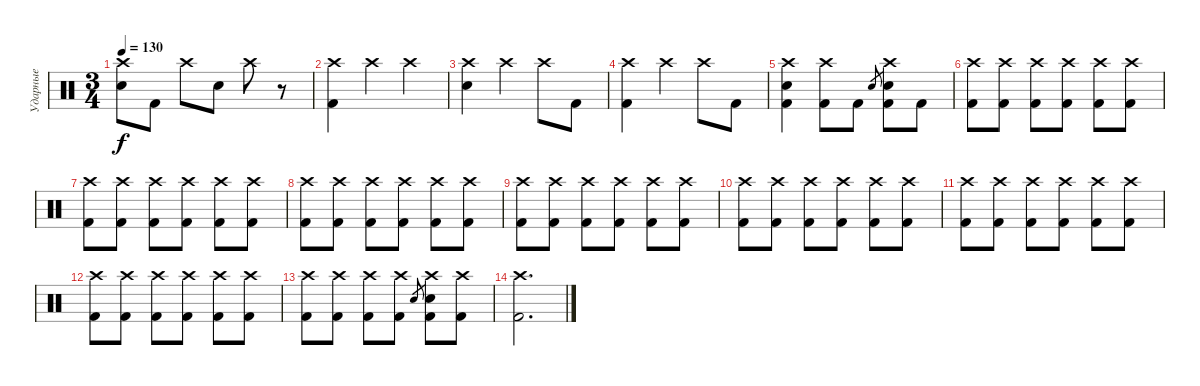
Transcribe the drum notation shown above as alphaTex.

\track ("Ударные" "Ударные") {instrument percussion}
\staff {score}
\articulation defaults
\ts (3 4)
\tempo 130
\clef neutral
\ks c
("Crash high (hit)" "Electric Snare (hit)").8{dy f} "Kick (hit) 2".8 "Crash high (hit)".8 "Electric Snare (hit)".8 "Crash high (hit)".8 r.8 |
("Crash high (hit)" "Kick (hit) 2").4 "Crash high (hit)".4 "Crash high (hit)".4 |
("Crash high (hit)" "Electric Snare (hit)").4 "Crash high (hit)".4 "Crash high (hit)".8 "Kick (hit) 2".8 |
("Crash high (hit)" "Kick (hit) 2").4 "Crash high (hit)".4 "Crash high (hit)".8 "Kick (hit) 2".8 |
("Crash high (hit)" "Electric Snare (hit)" "Kick (hit) 2").4 ("Crash high (hit)" "Kick (hit) 2").8 "Kick (hit) 2".8 "Electric Snare (hit)".8{gr} ("Crash high (hit)" "Electric Snare (hit)" "Kick (hit) 2").8 "Kick (hit) 2".8 |
("Crash high (hit)" "Kick (hit) 2").8 ("Crash high (hit)" "Kick (hit) 2").8 ("Crash high (hit)" "Kick (hit) 2").8 ("Crash high (hit)" "Kick (hit) 2").8 ("Crash high (hit)" "Kick (hit) 2").8 ("Crash high (hit)" "Kick (hit) 2").8 |
("Crash high (hit)" "Kick (hit) 2").8 ("Crash high (hit)" "Kick (hit) 2").8 ("Crash high (hit)" "Kick (hit) 2").8 ("Crash high (hit)" "Kick (hit) 2").8 ("Crash high (hit)" "Kick (hit) 2").8 ("Crash high (hit)" "Kick (hit) 2").8 |
("Crash high (hit)" "Kick (hit) 2").8 ("Crash high (hit)" "Kick (hit) 2").8 ("Crash high (hit)" "Kick (hit) 2").8 ("Crash high (hit)" "Kick (hit) 2").8 ("Crash high (hit)" "Kick (hit) 2").8 ("Crash high (hit)" "Kick (hit) 2").8 |
("Crash high (hit)" "Kick (hit) 2").8 ("Crash high (hit)" "Kick (hit) 2").8 ("Crash high (hit)" "Kick (hit) 2").8 ("Crash high (hit)" "Kick (hit) 2").8 ("Crash high (hit)" "Kick (hit) 2").8 ("Crash high (hit)" "Kick (hit) 2").8 |
("Crash high (hit)" "Kick (hit) 2").8 ("Crash high (hit)" "Kick (hit) 2").8 ("Crash high (hit)" "Kick (hit) 2").8 ("Crash high (hit)" "Kick (hit) 2").8 ("Crash high (hit)" "Kick (hit) 2").8 ("Crash high (hit)" "Kick (hit) 2").8 |
("Crash high (hit)" "Kick (hit) 2").8 ("Crash high (hit)" "Kick (hit) 2").8 ("Crash high (hit)" "Kick (hit) 2").8 ("Crash high (hit)" "Kick (hit) 2").8 ("Crash high (hit)" "Kick (hit) 2").8 ("Crash high (hit)" "Kick (hit) 2").8 |
("Crash high (hit)" "Kick (hit) 2").8 ("Crash high (hit)" "Kick (hit) 2").8 ("Crash high (hit)" "Kick (hit) 2").8 ("Crash high (hit)" "Kick (hit) 2").8 ("Crash high (hit)" "Kick (hit) 2").8 ("Crash high (hit)" "Kick (hit) 2").8 |
("Crash high (hit)" "Kick (hit) 2").8 ("Crash high (hit)" "Kick (hit) 2").8 ("Crash high (hit)" "Kick (hit) 2").8 ("Crash high (hit)" "Kick (hit) 2").8 "Snare (hit) 2".8{gr} ("Crash high (hit)" "Snare (hit) 2" "Kick (hit) 2").8 ("Crash high (hit)" "Kick (hit) 2").8 |
("Crash high (hit)" "Kick (hit) 2").2{d}
